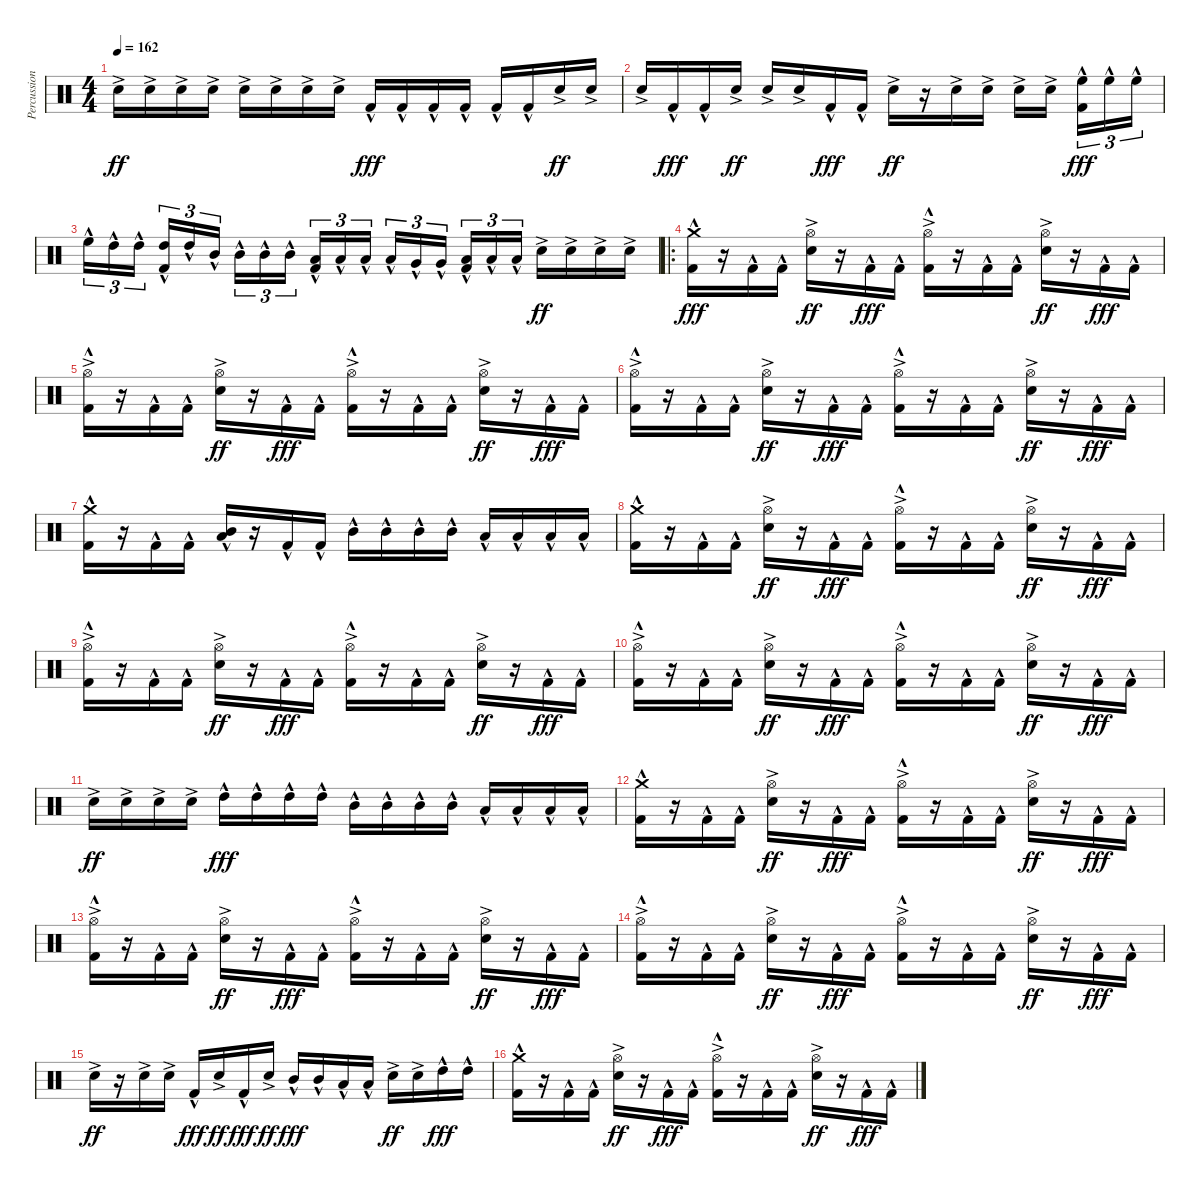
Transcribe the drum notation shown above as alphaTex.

\track ("Percussion" "Percussion") {instrument percussion}
\staff {score}
\articulation defaults
\ts (4 4)
\tempo 162
\clef neutral
\ks c "Snare (hit) 2"{ac}.16{dy ff} "Snare (hit) 2"{ac}.16 "Snare (hit) 2"{ac}.16 "Snare (hit) 2"{ac}.16 "Snare (hit) 2"{ac}.16 "Snare (hit) 2"{ac}.16 "Snare (hit) 2"{ac}.16 "Snare (hit) 2"{ac}.16 "Kick (hit) 2"{hac}.16{dy fff} "Kick (hit) 2"{hac}.16 "Kick (hit) 2"{hac}.16 "Kick (hit) 2"{hac}.16 "Kick (hit) 2"{hac}.16 "Kick (hit) 2"{hac}.16 "Snare (hit) 2"{ac}.16{dy ff} "Snare (hit) 2"{ac}.16
|
"Snare (hit) 2"{ac}.16 "Kick (hit) 2"{hac}.16{dy fff} "Kick (hit) 2"{hac}.16 "Snare (hit) 2"{ac}.16{dy ff} "Snare (hit) 2"{ac}.16 "Snare (hit) 2"{ac}.16 "Kick (hit) 2"{hac}.16{dy fff} "Kick (hit) 2"{hac}.16 "Snare (hit) 2"{ac}.16{dy ff} r.16 "Snare (hit) 2"{ac}.16 "Snare (hit) 2"{ac}.16 "Snare (hit) 2"{ac}.16 "Snare (hit) 2"{ac}.16{beam splitsecondary} ("High Floor Tom (hit)"{hac} "Kick (hit) 2"{hac}).16{tu (3 2) dy fff} "High Floor Tom (hit)"{hac}.16{tu (3 2)} "High Floor Tom (hit)"{hac}.16{tu (3 2)} |
"High Floor Tom (hit)"{hac}.16{tu (3 2)} "High Tom (hit)"{hac}.16{tu (3 2)} "High Tom (hit)"{hac}.16{tu (3 2) beam splitsecondary} ("High Tom (hit)"{hac} "Kick (hit) 2"{hac}).16{tu (3 2)} "High Tom (hit)"{hac}.16{tu (3 2)} "Mid Tom (hit)"{hac}.16{tu (3 2)} "Mid Tom (hit)"{hac}.16{tu (3 2)} "Mid Tom (hit)"{hac}.16{tu (3 2)} "Mid Tom (hit)"{hac}.16{tu (3 2) beam splitsecondary} ("Low Tom (hit)"{hac} "Kick (hit) 2"{hac}).16{tu (3 2)} "Low Tom (hit)"{hac}.16{tu (3 2)} "Low Tom (hit)"{hac}.16{tu (3 2)} "Low Tom (hit)"{hac}.16{tu (3 2)} "Very Low Tom (hit)"{hac}.16{tu (3 2)} "Very Low Tom (hit)"{hac}.16{tu (3 2) beam splitsecondary} ("Low Floor Tom (hit)"{hac} "Kick (hit) 2"{hac}).16{tu (3 2)} "Low Floor Tom (hit)"{hac}.16{tu (3 2)} "Low Floor Tom (hit)"{hac}.16{tu (3 2)} "Snare (hit) 2"{ac}.16{dy ff} "Snare (hit) 2"{ac}.16 "Snare (hit) 2"{ac}.16 "Snare (hit) 2"{ac}.16 |
\ro
("Crash medium (hit)"{hac} "Kick (hit) 2"{hac}).16{dy fff} r.16 "Kick (hit) 2"{hac}.16 "Kick (hit) 2"{hac}.16 ("Hi-Hat (open)"{ac} "Snare (hit) 2"{ac}).16{dy ff} r.16 "Kick (hit) 2"{hac}.16{dy fff} "Kick (hit) 2"{hac}.16 ("Hi-Hat (open)"{ac} "Kick (hit) 2"{hac}).16 r.16 "Kick (hit) 2"{hac}.16 "Kick (hit) 2"{hac}.16 ("Hi-Hat (open)"{ac} "Snare (hit) 2"{ac}).16{dy ff} r.16 "Kick (hit) 2"{hac}.16{dy fff} "Kick (hit) 2"{hac}.16 |
("Hi-Hat (open)"{ac} "Kick (hit) 2"{hac}).16 r.16 "Kick (hit) 2"{hac}.16 "Kick (hit) 2"{hac}.16 ("Hi-Hat (open)"{ac} "Snare (hit) 2"{ac}).16{dy ff} r.16 "Kick (hit) 2"{hac}.16{dy fff} "Kick (hit) 2"{hac}.16 ("Hi-Hat (open)"{ac} "Kick (hit) 2"{hac}).16 r.16 "Kick (hit) 2"{hac}.16 "Kick (hit) 2"{hac}.16 ("Hi-Hat (open)"{ac} "Snare (hit) 2"{ac}).16{dy ff} r.16 "Kick (hit) 2"{hac}.16{dy fff} "Kick (hit) 2"{hac}.16 |
("Hi-Hat (open)"{ac} "Kick (hit) 2"{hac}).16 r.16 "Kick (hit) 2"{hac}.16 "Kick (hit) 2"{hac}.16 ("Hi-Hat (open)"{ac} "Snare (hit) 2"{ac}).16{dy ff} r.16 "Kick (hit) 2"{hac}.16{dy fff} "Kick (hit) 2"{hac}.16 ("Hi-Hat (open)"{ac} "Kick (hit) 2"{hac}).16 r.16 "Kick (hit) 2"{hac}.16 "Kick (hit) 2"{hac}.16 ("Hi-Hat (open)"{ac} "Snare (hit) 2"{ac}).16{dy ff} r.16 "Kick (hit) 2"{hac}.16{dy fff} "Kick (hit) 2"{hac}.16 |
("Crash medium (hit)"{hac} "Kick (hit) 2"{hac}).16 r.16 "Kick (hit) 2"{hac}.16 "Kick (hit) 2"{hac}.16 ("Low Tom (hit)"{hac} "Mid Tom (hit)"{hac}).16 r.16 "Kick (hit) 2"{hac}.16 "Kick (hit) 2"{hac}.16 "Mid Tom (hit)"{hac}.16 "Mid Tom (hit)"{hac}.16 "Mid Tom (hit)"{hac}.16 "Mid Tom (hit)"{hac}.16 "Low Tom (hit)"{hac}.16 "Low Tom (hit)"{hac}.16 "Low Tom (hit)"{hac}.16 "Low Tom (hit)"{hac}.16 |
("Crash medium (hit)"{hac} "Kick (hit) 2"{hac}).16 r.16 "Kick (hit) 2"{hac}.16 "Kick (hit) 2"{hac}.16 ("Hi-Hat (open)"{ac} "Snare (hit) 2"{ac}).16{dy ff} r.16 "Kick (hit) 2"{hac}.16{dy fff} "Kick (hit) 2"{hac}.16 ("Hi-Hat (open)"{ac} "Kick (hit) 2"{hac}).16 r.16 "Kick (hit) 2"{hac}.16 "Kick (hit) 2"{hac}.16 ("Hi-Hat (open)"{ac} "Snare (hit) 2"{ac}).16{dy ff} r.16 "Kick (hit) 2"{hac}.16{dy fff} "Kick (hit) 2"{hac}.16 |
("Hi-Hat (open)"{ac} "Kick (hit) 2"{hac}).16 r.16 "Kick (hit) 2"{hac}.16 "Kick (hit) 2"{hac}.16 ("Hi-Hat (open)"{ac} "Snare (hit) 2"{ac}).16{dy ff} r.16 "Kick (hit) 2"{hac}.16{dy fff} "Kick (hit) 2"{hac}.16 ("Hi-Hat (open)"{ac} "Kick (hit) 2"{hac}).16 r.16 "Kick (hit) 2"{hac}.16 "Kick (hit) 2"{hac}.16 ("Hi-Hat (open)"{ac} "Snare (hit) 2"{ac}).16{dy ff} r.16 "Kick (hit) 2"{hac}.16{dy fff} "Kick (hit) 2"{hac}.16 |
("Hi-Hat (open)"{ac} "Kick (hit) 2"{hac}).16 r.16 "Kick (hit) 2"{hac}.16 "Kick (hit) 2"{hac}.16 ("Hi-Hat (open)"{ac} "Snare (hit) 2"{ac}).16{dy ff} r.16 "Kick (hit) 2"{hac}.16{dy fff} "Kick (hit) 2"{hac}.16 ("Hi-Hat (open)"{ac} "Kick (hit) 2"{hac}).16 r.16 "Kick (hit) 2"{hac}.16 "Kick (hit) 2"{hac}.16 ("Hi-Hat (open)"{ac} "Snare (hit) 2"{ac}).16{dy ff} r.16 "Kick (hit) 2"{hac}.16{dy fff} "Kick (hit) 2"{hac}.16 |
"Snare (hit) 2"{ac}.16{dy ff} "Snare (hit) 2"{ac}.16 "Snare (hit) 2"{ac}.16 "Snare (hit) 2"{ac}.16 "High Tom (hit)"{hac}.16{dy fff} "High Tom (hit)"{hac}.16 "High Tom (hit)"{hac}.16 "High Tom (hit)"{hac}.16 "Mid Tom (hit)"{hac}.16 "Mid Tom (hit)"{hac}.16 "Mid Tom (hit)"{hac}.16 "Mid Tom (hit)"{hac}.16 "Low Tom (hit)"{hac}.16 "Low Tom (hit)"{hac}.16 "Low Tom (hit)"{hac}.16 "Low Tom (hit)"{hac}.16 |
("Crash medium (hit)"{hac} "Kick (hit) 2"{hac}).16 r.16 "Kick (hit) 2"{hac}.16 "Kick (hit) 2"{hac}.16 ("Hi-Hat (open)"{ac} "Snare (hit) 2"{ac}).16{dy ff} r.16 "Kick (hit) 2"{hac}.16{dy fff} "Kick (hit) 2"{hac}.16 ("Hi-Hat (open)"{ac} "Kick (hit) 2"{hac}).16 r.16 "Kick (hit) 2"{hac}.16 "Kick (hit) 2"{hac}.16 ("Hi-Hat (open)"{ac} "Snare (hit) 2"{ac}).16{dy ff} r.16 "Kick (hit) 2"{hac}.16{dy fff} "Kick (hit) 2"{hac}.16 |
("Hi-Hat (open)"{ac} "Kick (hit) 2"{hac}).16 r.16 "Kick (hit) 2"{hac}.16 "Kick (hit) 2"{hac}.16 ("Hi-Hat (open)"{ac} "Snare (hit) 2"{ac}).16{dy ff} r.16 "Kick (hit) 2"{hac}.16{dy fff} "Kick (hit) 2"{hac}.16 ("Hi-Hat (open)"{ac} "Kick (hit) 2"{hac}).16 r.16 "Kick (hit) 2"{hac}.16 "Kick (hit) 2"{hac}.16 ("Hi-Hat (open)"{ac} "Snare (hit) 2"{ac}).16{dy ff} r.16 "Kick (hit) 2"{hac}.16{dy fff} "Kick (hit) 2"{hac}.16 |
("Hi-Hat (open)"{ac} "Kick (hit) 2"{hac}).16 r.16 "Kick (hit) 2"{hac}.16 "Kick (hit) 2"{hac}.16 ("Hi-Hat (open)"{ac} "Snare (hit) 2"{ac}).16{dy ff} r.16 "Kick (hit) 2"{hac}.16{dy fff} "Kick (hit) 2"{hac}.16 ("Hi-Hat (open)"{ac} "Kick (hit) 2"{hac}).16 r.16 "Kick (hit) 2"{hac}.16 "Kick (hit) 2"{hac}.16 ("Hi-Hat (open)"{ac} "Snare (hit) 2"{ac}).16{dy ff} r.16 "Kick (hit) 2"{hac}.16{dy fff} "Kick (hit) 2"{hac}.16 |
"Snare (hit) 2"{ac}.16{dy ff} r.16 "Snare (hit) 2"{ac}.16 "Snare (hit) 2"{ac}.16 "Kick (hit) 2"{hac}.16{dy fff} "Snare (hit) 2"{ac}.16{dy ff} "Kick (hit) 2"{hac}.16{dy fff} "Snare (hit) 2"{ac}.16{dy ff} "Mid Tom (hit)"{hac}.16{dy fff} "Mid Tom (hit)"{hac}.16 "Low Tom (hit)"{hac}.16 "Low Tom (hit)"{hac}.16 "Snare (hit) 2"{ac}.16{dy ff} "Snare (hit) 2"{ac}.16 "High Tom (hit)"{hac}.16{dy fff} "High Tom (hit)"{hac}.16 |
("Crash medium (hit)"{hac} "Kick (hit) 2"{hac}).16 r.16 "Kick (hit) 2"{hac}.16 "Kick (hit) 2"{hac}.16 ("Hi-Hat (open)"{ac} "Snare (hit) 2"{ac}).16{dy ff} r.16 "Kick (hit) 2"{hac}.16{dy fff} "Kick (hit) 2"{hac}.16 ("Hi-Hat (open)"{ac} "Kick (hit) 2"{hac}).16 r.16 "Kick (hit) 2"{hac}.16 "Kick (hit) 2"{hac}.16 ("Hi-Hat (open)"{ac} "Snare (hit) 2"{ac}).16{dy ff} r.16 "Kick (hit) 2"{hac}.16{dy fff} "Kick (hit) 2"{hac}.16
